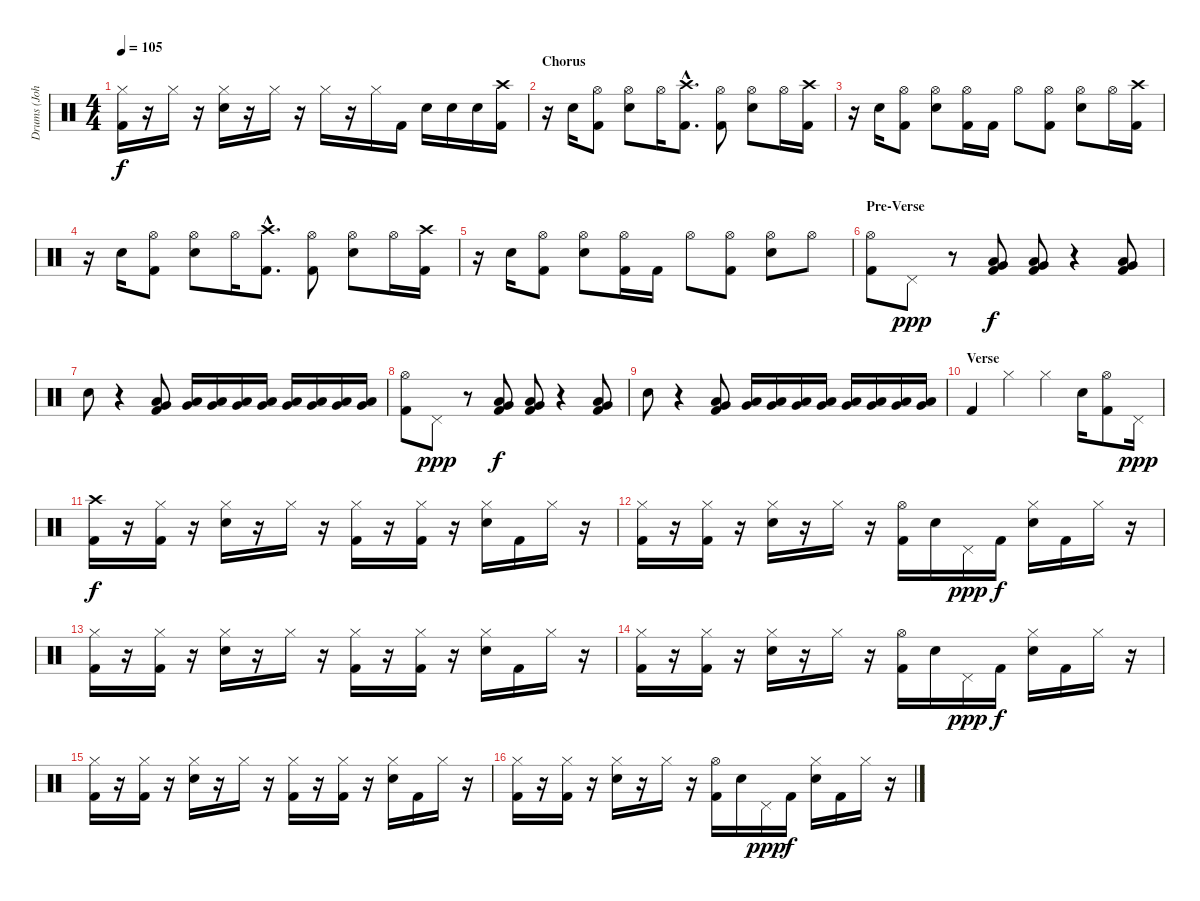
\track ("Drums (John Otto)" "Drums (Joh") {instrument percussion}
\staff {score}
\articulation defaults
\ts (4 4)
\tempo 105
\clef neutral
\ks c
("Hi-Hat (closed)" "Kick (hit) 2").16{dy f} r.16 "Hi-Hat (closed)".16 r.16 ("Hi-Hat (closed)" "Electric Snare (hit)").16 r.16 "Hi-Hat (closed)".16 r.16 "Hi-Hat (closed)".16 r.16 "Hi-Hat (closed)".16 "Kick (hit) 2".16 "Electric Snare (hit)".16 "Electric Snare (hit)".16 "Electric Snare (hit)".16 ("Crash high (hit)" "Kick (hit) 2").16 |
\section ("" "Chorus")
r.16 "Electric Snare (hit)".16 ("Hi-Hat (open)" "Kick (hit) 2").8 ("Hi-Hat (open)" "Electric Snare (hit)").8 "Hi-Hat (open)".16 ("Crash high (hit)"{hac} "Kick (hit) 2"{hac}).8{d} ("Hi-Hat (open)" "Kick (hit) 2").8 ("Hi-Hat (open)" "Electric Snare (hit)").8 "Hi-Hat (open)".16 ("Crash high (hit)" "Kick (hit) 2").16 |
r.16 "Electric Snare (hit)".16 ("Hi-Hat (open)" "Kick (hit) 2").8 ("Hi-Hat (open)" "Electric Snare (hit)").8 ("Hi-Hat (open)" "Kick (hit) 2").16 "Kick (hit) 2".16 "Hi-Hat (open)".8 ("Hi-Hat (open)" "Kick (hit) 2").8 ("Hi-Hat (open)" "Electric Snare (hit)").8 "Hi-Hat (open)".16 ("Crash high (hit)" "Kick (hit) 2").16 |
r.16 "Electric Snare (hit)".16 ("Hi-Hat (open)" "Kick (hit) 2").8 ("Hi-Hat (open)" "Electric Snare (hit)").8 "Hi-Hat (open)".16 ("Crash high (hit)"{hac} "Kick (hit) 2"{hac}).8{d} ("Hi-Hat (open)" "Kick (hit) 2").8 ("Hi-Hat (open)" "Electric Snare (hit)").8 "Hi-Hat (open)".16 ("Crash high (hit)" "Kick (hit) 2").16 |
r.16 "Electric Snare (hit)".16 ("Hi-Hat (open)" "Kick (hit) 2").8 ("Hi-Hat (open)" "Electric Snare (hit)").8 ("Hi-Hat (open)" "Kick (hit) 2").16 "Kick (hit) 2".16 "Hi-Hat (open)".8 ("Hi-Hat (open)" "Kick (hit) 2").8 ("Hi-Hat (open)" "Electric Snare (hit)").8 "Hi-Hat (open)".8 |
\section ("" "Pre-Verse")
("Hi-Hat (open)" "Kick (hit) 2").8 "Pedal Hi-Hat (hit)".8{dy ppp} r.8 ("Very Low Tom (hit)" "Low Tom (hit)" "Kick (hit) 2").8{dy f} ("Very Low Tom (hit)" "Low Tom (hit)" "Kick (hit) 2").8 r.4 ("Very Low Tom (hit)" "Low Tom (hit)" "Kick (hit) 2").8 |
"Electric Snare (hit)".8 r.4 ("Very Low Tom (hit)" "Low Tom (hit)" "Kick (hit) 2").8 ("Low Tom (hit)" "Very Low Tom (hit)").16 ("Low Tom (hit)" "Very Low Tom (hit)").16 ("Low Tom (hit)" "Very Low Tom (hit)").16 ("Low Tom (hit)" "Very Low Tom (hit)").16 ("Low Tom (hit)" "Very Low Tom (hit)").16 ("Low Tom (hit)" "Very Low Tom (hit)").16 ("Low Tom (hit)" "Very Low Tom (hit)").16 ("Low Tom (hit)" "Very Low Tom (hit)").16 |
("Hi-Hat (open)" "Kick (hit) 2").8 "Pedal Hi-Hat (hit)".8{dy ppp} r.8 ("Very Low Tom (hit)" "Low Tom (hit)" "Kick (hit) 2").8{dy f} ("Very Low Tom (hit)" "Low Tom (hit)" "Kick (hit) 2").8 r.4 ("Very Low Tom (hit)" "Low Tom (hit)" "Kick (hit) 2").8 |
"Electric Snare (hit)".8 r.4 ("Very Low Tom (hit)" "Low Tom (hit)" "Kick (hit) 2").8 ("Low Tom (hit)" "Very Low Tom (hit)").16 ("Low Tom (hit)" "Very Low Tom (hit)").16 ("Low Tom (hit)" "Very Low Tom (hit)").16 ("Low Tom (hit)" "Very Low Tom (hit)").16 ("Low Tom (hit)" "Very Low Tom (hit)").16 ("Low Tom (hit)" "Very Low Tom (hit)").16 ("Low Tom (hit)" "Very Low Tom (hit)").16 ("Low Tom (hit)" "Very Low Tom (hit)").16 |
\section ("" "Verse")
"Kick (hit) 2".4 "Hi-Hat (closed)".4 "Hi-Hat (closed)".4 "Electric Snare (hit)".16 ("Hi-Hat (open)" "Kick (hit) 2").8 "Pedal Hi-Hat (hit)".16{dy ppp} |
("Crash high (hit)" "Kick (hit) 2").16{dy f} r.16 ("Hi-Hat (closed)" "Kick (hit) 2").16 r.16 ("Hi-Hat (closed)" "Electric Snare (hit)").16 r.16 "Hi-Hat (closed)".16 r.16 ("Hi-Hat (closed)" "Kick (hit) 2").16 r.16 ("Hi-Hat (closed)" "Kick (hit) 2").16 r.16 ("Hi-Hat (closed)" "Electric Snare (hit)").16 "Kick (hit) 2".16 "Hi-Hat (closed)".16 r.16 |
("Hi-Hat (closed)" "Kick (hit) 2").16 r.16 ("Hi-Hat (closed)" "Kick (hit) 2").16 r.16 ("Hi-Hat (closed)" "Electric Snare (hit)").16 r.16 "Hi-Hat (closed)".16 r.16 ("Hi-Hat (open)" "Kick (hit) 2").16 "Electric Snare (hit)".16 "Pedal Hi-Hat (hit)".16{dy ppp} "Kick (hit) 2".16{dy f} ("Hi-Hat (closed)" "Electric Snare (hit)").16 "Kick (hit) 2".16 "Hi-Hat (closed)".16 r.16 |
("Hi-Hat (closed)" "Kick (hit) 2").16 r.16 ("Hi-Hat (closed)" "Kick (hit) 2").16 r.16 ("Hi-Hat (closed)" "Electric Snare (hit)").16 r.16 "Hi-Hat (closed)".16 r.16 ("Hi-Hat (closed)" "Kick (hit) 2").16 r.16 ("Hi-Hat (closed)" "Kick (hit) 2").16 r.16 ("Hi-Hat (closed)" "Electric Snare (hit)").16 "Kick (hit) 2".16 "Hi-Hat (closed)".16 r.16 |
("Hi-Hat (closed)" "Kick (hit) 2").16 r.16 ("Hi-Hat (closed)" "Kick (hit) 2").16 r.16 ("Hi-Hat (closed)" "Electric Snare (hit)").16 r.16 "Hi-Hat (closed)".16 r.16 ("Hi-Hat (open)" "Kick (hit) 2").16 "Electric Snare (hit)".16 "Pedal Hi-Hat (hit)".16{dy ppp} "Kick (hit) 2".16{dy f} ("Hi-Hat (closed)" "Electric Snare (hit)").16 "Kick (hit) 2".16 "Hi-Hat (closed)".16 r.16 |
("Hi-Hat (closed)" "Kick (hit) 2").16 r.16 ("Hi-Hat (closed)" "Kick (hit) 2").16 r.16 ("Hi-Hat (closed)" "Electric Snare (hit)").16 r.16 "Hi-Hat (closed)".16 r.16 ("Hi-Hat (closed)" "Kick (hit) 2").16 r.16 ("Hi-Hat (closed)" "Kick (hit) 2").16 r.16 ("Hi-Hat (closed)" "Electric Snare (hit)").16 "Kick (hit) 2".16 "Hi-Hat (closed)".16 r.16 |
("Hi-Hat (closed)" "Kick (hit) 2").16 r.16 ("Hi-Hat (closed)" "Kick (hit) 2").16 r.16 ("Hi-Hat (closed)" "Electric Snare (hit)").16 r.16 "Hi-Hat (closed)".16 r.16 ("Hi-Hat (open)" "Kick (hit) 2").16 "Electric Snare (hit)".16 "Pedal Hi-Hat (hit)".16{dy ppp} "Kick (hit) 2".16{dy f} ("Hi-Hat (closed)" "Electric Snare (hit)").16 "Kick (hit) 2".16 "Hi-Hat (closed)".16 r.16
